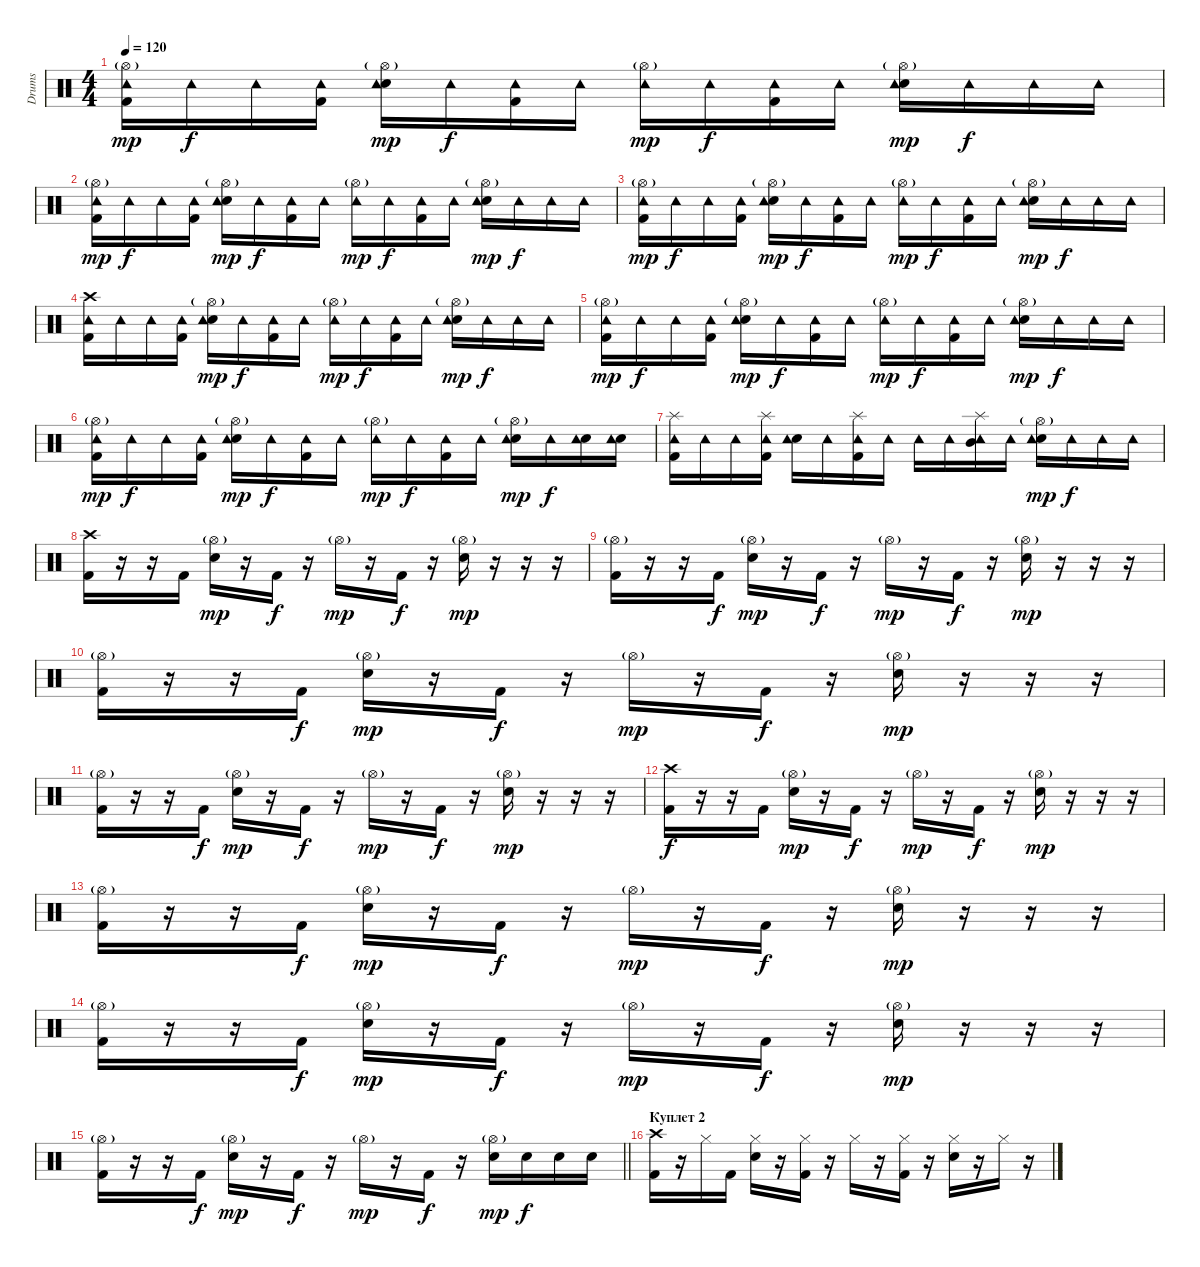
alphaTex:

\track ("Drums" "Drums") {instrument percussion}
\staff {score}
\articulation defaults
\ts (4 4)
\tempo 120
\clef neutral
\ks c
("Hi-Hat (open)"{g} "Kick (hit) 2" "Tambourine (hit)").16{dy mp} "Tambourine (hit)".16{dy f} "Tambourine (hit)".16 ("Kick (hit) 2" "Tambourine (hit)").16 ("Hi-Hat (open)"{g} "Electric Snare (hit)" "Tambourine (hit)").16{dy mp} "Tambourine (hit)".16{dy f} ("Kick (hit) 2" "Tambourine (hit)").16 "Tambourine (hit)".16 ("Hi-Hat (open)"{g} "Tambourine (hit)").16{dy mp} "Tambourine (hit)".16{dy f} ("Kick (hit) 2" "Tambourine (hit)").16 "Tambourine (hit)".16 ("Hi-Hat (open)"{g} "Electric Snare (hit)" "Tambourine (hit)").16{dy mp} "Tambourine (hit)".16{dy f} "Tambourine (hit)".16 "Tambourine (hit)".16 |
("Hi-Hat (open)"{g} "Kick (hit) 2" "Tambourine (hit)").16{dy mp} "Tambourine (hit)".16{dy f} "Tambourine (hit)".16 ("Kick (hit) 2" "Tambourine (hit)").16 ("Hi-Hat (open)"{g} "Electric Snare (hit)" "Tambourine (hit)").16{dy mp} "Tambourine (hit)".16{dy f} ("Kick (hit) 2" "Tambourine (hit)").16 "Tambourine (hit)".16 ("Hi-Hat (open)"{g} "Tambourine (hit)").16{dy mp} "Tambourine (hit)".16{dy f} ("Kick (hit) 2" "Tambourine (hit)").16 "Tambourine (hit)".16 ("Hi-Hat (open)"{g} "Electric Snare (hit)" "Tambourine (hit)").16{dy mp} "Tambourine (hit)".16{dy f} "Tambourine (hit)".16 "Tambourine (hit)".16 |
("Hi-Hat (open)"{g} "Kick (hit) 2" "Tambourine (hit)").16{dy mp} "Tambourine (hit)".16{dy f} "Tambourine (hit)".16 ("Kick (hit) 2" "Tambourine (hit)").16 ("Hi-Hat (open)"{g} "Electric Snare (hit)" "Tambourine (hit)").16{dy mp} "Tambourine (hit)".16{dy f} ("Kick (hit) 2" "Tambourine (hit)").16 "Tambourine (hit)".16 ("Hi-Hat (open)"{g} "Tambourine (hit)").16{dy mp} "Tambourine (hit)".16{dy f} ("Kick (hit) 2" "Tambourine (hit)").16 "Tambourine (hit)".16 ("Hi-Hat (open)"{g} "Electric Snare (hit)" "Tambourine (hit)").16{dy mp} "Tambourine (hit)".16{dy f} "Tambourine (hit)".16 "Tambourine (hit)".16 |
("Crash high (hit)" "Kick (hit) 2" "Tambourine (hit)").16 "Tambourine (hit)".16 "Tambourine (hit)".16 ("Kick (hit) 2" "Tambourine (hit)").16 ("Hi-Hat (open)"{g} "Electric Snare (hit)" "Tambourine (hit)").16{dy mp} "Tambourine (hit)".16{dy f} ("Kick (hit) 2" "Tambourine (hit)").16 "Tambourine (hit)".16 ("Hi-Hat (open)"{g} "Tambourine (hit)").16{dy mp} "Tambourine (hit)".16{dy f} ("Kick (hit) 2" "Tambourine (hit)").16 "Tambourine (hit)".16 ("Hi-Hat (open)"{g} "Electric Snare (hit)" "Tambourine (hit)").16{dy mp} "Tambourine (hit)".16{dy f} "Tambourine (hit)".16 "Tambourine (hit)".16 |
("Hi-Hat (open)"{g} "Kick (hit) 2" "Tambourine (hit)").16{dy mp} "Tambourine (hit)".16{dy f} "Tambourine (hit)".16 ("Kick (hit) 2" "Tambourine (hit)").16 ("Hi-Hat (open)"{g} "Electric Snare (hit)" "Tambourine (hit)").16{dy mp} "Tambourine (hit)".16{dy f} ("Kick (hit) 2" "Tambourine (hit)").16 "Tambourine (hit)".16 ("Hi-Hat (open)"{g} "Tambourine (hit)").16{dy mp} "Tambourine (hit)".16{dy f} ("Kick (hit) 2" "Tambourine (hit)").16 "Tambourine (hit)".16 ("Hi-Hat (open)"{g} "Electric Snare (hit)" "Tambourine (hit)").16{dy mp} "Tambourine (hit)".16{dy f} "Tambourine (hit)".16 "Tambourine (hit)".16 |
("Hi-Hat (open)"{g} "Kick (hit) 2" "Tambourine (hit)").16{dy mp} "Tambourine (hit)".16{dy f} "Tambourine (hit)".16 ("Kick (hit) 2" "Tambourine (hit)").16 ("Hi-Hat (open)"{g} "Electric Snare (hit)" "Tambourine (hit)").16{dy mp} "Tambourine (hit)".16{dy f} ("Kick (hit) 2" "Tambourine (hit)").16 "Tambourine (hit)".16 ("Hi-Hat (open)"{g} "Tambourine (hit)").16{dy mp} "Tambourine (hit)".16{dy f} ("Kick (hit) 2" "Tambourine (hit)").16 "Tambourine (hit)".16 ("Hi-Hat (open)"{g} "Electric Snare (hit)" "Tambourine (hit)").16{dy mp} "Tambourine (hit)".16{dy f} ("Electric Snare (hit)" "Tambourine (hit)").16 ("Electric Snare (hit)" "Tambourine (hit)").16 |
("Splash (hit)" "Kick (hit) 2" "Tambourine (hit)").16 "Tambourine (hit)".16 "Tambourine (hit)".16 ("Splash (hit)" "Kick (hit) 2" "Tambourine (hit)").16 ("Electric Snare (hit)" "Tambourine (hit)").16 "Tambourine (hit)".16 ("Splash (hit)" "Kick (hit) 2" "Tambourine (hit)").16 "Tambourine (hit)".16 "Tambourine (hit)".16 "Tambourine (hit)".16 ("Splash (hit)" "Tambourine (hit)" "Mid Tom (hit)").16 "Tambourine (hit)".16 ("Hi-Hat (open)"{g} "Electric Snare (hit)" "Tambourine (hit)").16{dy mp} "Tambourine (hit)".16{dy f} "Tambourine (hit)".16 "Tambourine (hit)".16 |
("Crash high (hit)" "Kick (hit) 2").16 r.16 r.16 "Kick (hit) 2".16 ("Hi-Hat (open)"{g} "Electric Snare (hit)").16{dy mp} r.16 "Kick (hit) 2".16{dy f} r.16 "Hi-Hat (open)"{g}.16{dy mp} r.16 "Kick (hit) 2".16{dy f} r.16 ("Hi-Hat (open)"{g} "Electric Snare (hit)").16{dy mp} r.16 r.16 r.16 |
("Hi-Hat (open)"{g} "Kick (hit) 2").16 r.16 r.16 "Kick (hit) 2".16{dy f} ("Hi-Hat (open)"{g} "Electric Snare (hit)").16{dy mp} r.16 "Kick (hit) 2".16{dy f} r.16 "Hi-Hat (open)"{g}.16{dy mp} r.16 "Kick (hit) 2".16{dy f} r.16 ("Hi-Hat (open)"{g} "Electric Snare (hit)").16{dy mp} r.16 r.16 r.16 |
("Hi-Hat (open)"{g} "Kick (hit) 2").16 r.16 r.16 "Kick (hit) 2".16{dy f} ("Hi-Hat (open)"{g} "Electric Snare (hit)").16{dy mp} r.16 "Kick (hit) 2".16{dy f} r.16 "Hi-Hat (open)"{g}.16{dy mp} r.16 "Kick (hit) 2".16{dy f} r.16 ("Hi-Hat (open)"{g} "Electric Snare (hit)").16{dy mp} r.16 r.16 r.16 |
("Hi-Hat (open)"{g} "Kick (hit) 2").16 r.16 r.16 "Kick (hit) 2".16{dy f} ("Hi-Hat (open)"{g} "Electric Snare (hit)").16{dy mp} r.16 "Kick (hit) 2".16{dy f} r.16 "Hi-Hat (open)"{g}.16{dy mp} r.16 "Kick (hit) 2".16{dy f} r.16 ("Hi-Hat (open)"{g} "Electric Snare (hit)").16{dy mp} r.16 r.16 r.16 |
("Crash high (hit)" "Kick (hit) 2").16{dy f} r.16 r.16 "Kick (hit) 2".16 ("Hi-Hat (open)"{g} "Electric Snare (hit)").16{dy mp} r.16 "Kick (hit) 2".16{dy f} r.16 "Hi-Hat (open)"{g}.16{dy mp} r.16 "Kick (hit) 2".16{dy f} r.16 ("Hi-Hat (open)"{g} "Electric Snare (hit)").16{dy mp} r.16 r.16 r.16 |
("Hi-Hat (open)"{g} "Kick (hit) 2").16 r.16 r.16 "Kick (hit) 2".16{dy f} ("Hi-Hat (open)"{g} "Electric Snare (hit)").16{dy mp} r.16 "Kick (hit) 2".16{dy f} r.16 "Hi-Hat (open)"{g}.16{dy mp} r.16 "Kick (hit) 2".16{dy f} r.16 ("Hi-Hat (open)"{g} "Electric Snare (hit)").16{dy mp} r.16 r.16 r.16 |
("Hi-Hat (open)"{g} "Kick (hit) 2").16 r.16 r.16 "Kick (hit) 2".16{dy f} ("Hi-Hat (open)"{g} "Electric Snare (hit)").16{dy mp} r.16 "Kick (hit) 2".16{dy f} r.16 "Hi-Hat (open)"{g}.16{dy mp} r.16 "Kick (hit) 2".16{dy f} r.16 ("Hi-Hat (open)"{g} "Electric Snare (hit)").16{dy mp} r.16 r.16 r.16 |
\barLineRight lightlight
("Hi-Hat (open)"{g} "Kick (hit) 2").16 r.16 r.16 "Kick (hit) 2".16{dy f} ("Hi-Hat (open)"{g} "Electric Snare (hit)").16{dy mp} r.16 "Kick (hit) 2".16{dy f} r.16 "Hi-Hat (open)"{g}.16{dy mp} r.16 "Kick (hit) 2".16{dy f} r.16 ("Hi-Hat (open)"{g} "Electric Snare (hit)").16{dy mp} "Electric Snare (hit)".16{dy f} "Electric Snare (hit)".16 "Electric Snare (hit)".16 |
\section ("" "Куплет 2")
("Crash high (hit)" "Kick (hit) 2").16 r.16 "Hi-Hat (closed)".16 "Kick (hit) 2".16 ("Hi-Hat (closed)" "Electric Snare (hit)").16 r.16 ("Hi-Hat (closed)" "Kick (hit) 2").16 r.16 "Hi-Hat (closed)".16 r.16 ("Hi-Hat (closed)" "Kick (hit) 2").16 r.16 ("Hi-Hat (closed)" "Electric Snare (hit)").16 r.16 "Hi-Hat (closed)".16 r.16
